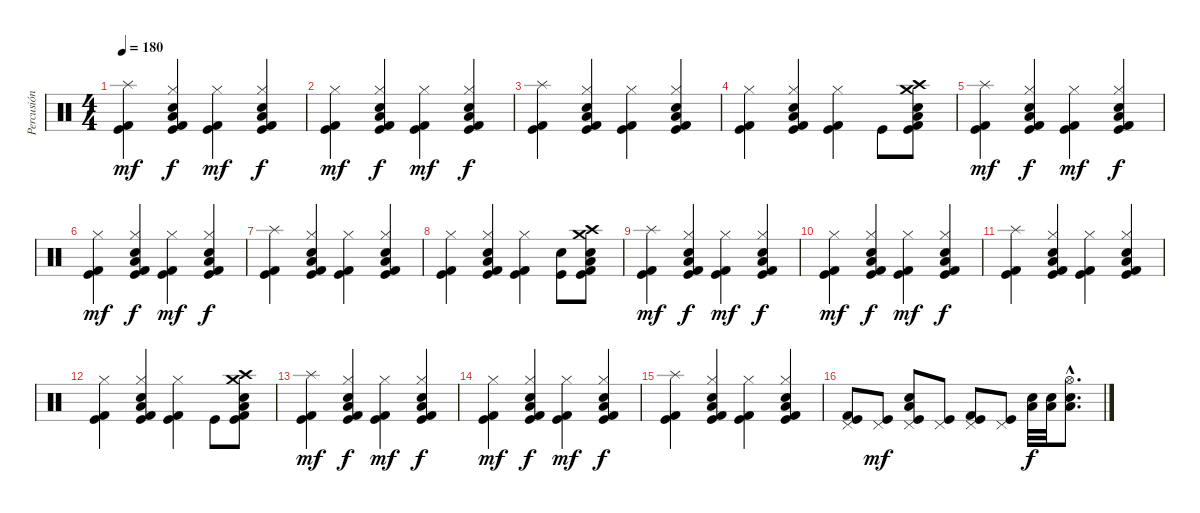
\track ("Percusión" "Percusión") {instrument percussion}
\staff {score}
\articulation defaults
\ts (4 4)
\tempo 180
\clef neutral
\ks c
("Splash (hit)" "Kick (hit) 2" "Kick (hit)").4{dy mf} ("Hi-Hat (closed)" "Electric Snare (hit)" "Low Tom (hit)" "Kick (hit) 2" "Kick (hit)").4{dy f} ("Hi-Hat (closed)" "Kick (hit) 2" "Kick (hit)").4{dy mf} ("Hi-Hat (closed)" "Electric Snare (hit)" "Low Tom (hit)" "Kick (hit) 2" "Kick (hit)").4{dy f} |
("Hi-Hat (closed)" "Kick (hit) 2" "Kick (hit)").4{dy mf} ("Hi-Hat (closed)" "Electric Snare (hit)" "Low Tom (hit)" "Kick (hit) 2" "Kick (hit)").4{dy f} ("Hi-Hat (closed)" "Kick (hit) 2" "Kick (hit)").4{dy mf} ("Hi-Hat (closed)" "Electric Snare (hit)" "Low Tom (hit)" "Kick (hit) 2" "Kick (hit)").4{dy f} |
("Splash (hit)" "Kick (hit) 2" "Kick (hit)").4 ("Hi-Hat (closed)" "Electric Snare (hit)" "Low Tom (hit)" "Kick (hit) 2" "Kick (hit)").4 ("Hi-Hat (closed)" "Kick (hit) 2" "Kick (hit)").4 ("Hi-Hat (closed)" "Electric Snare (hit)" "Low Tom (hit)" "Kick (hit) 2" "Kick (hit)").4 |
("Hi-Hat (closed)" "Kick (hit) 2" "Kick (hit)").4 ("Hi-Hat (closed)" "Electric Snare (hit)" "Low Tom (hit)" "Kick (hit) 2" "Kick (hit)").4 ("Hi-Hat (closed)" "Kick (hit) 2" "Kick (hit)").4 "Kick (hit)".8 ("Crash high (hit)" "Electric Snare (hit)" "Low Tom (hit)" "Crash medium (hit)" "Kick (hit) 2" "Kick (hit)").8 |
("Splash (hit)" "Kick (hit) 2" "Kick (hit)").4{dy mf} ("Hi-Hat (closed)" "Electric Snare (hit)" "Low Tom (hit)" "Kick (hit) 2" "Kick (hit)").4{dy f} ("Hi-Hat (closed)" "Kick (hit) 2" "Kick (hit)").4{dy mf} ("Hi-Hat (closed)" "Electric Snare (hit)" "Low Tom (hit)" "Kick (hit) 2" "Kick (hit)").4{dy f} |
("Hi-Hat (closed)" "Kick (hit) 2" "Kick (hit)").4{dy mf} ("Hi-Hat (closed)" "Electric Snare (hit)" "Low Tom (hit)" "Kick (hit) 2" "Kick (hit)").4{dy f} ("Hi-Hat (closed)" "Kick (hit) 2" "Kick (hit)").4{dy mf} ("Hi-Hat (closed)" "Electric Snare (hit)" "Low Tom (hit)" "Kick (hit) 2" "Kick (hit)").4{dy f} |
("Splash (hit)" "Kick (hit) 2" "Kick (hit)").4 ("Hi-Hat (closed)" "Electric Snare (hit)" "Low Tom (hit)" "Kick (hit) 2" "Kick (hit)").4 ("Hi-Hat (closed)" "Kick (hit) 2" "Kick (hit)").4 ("Hi-Hat (closed)" "Electric Snare (hit)" "Low Tom (hit)" "Kick (hit) 2" "Kick (hit)").4 |
("Hi-Hat (closed)" "Kick (hit) 2" "Kick (hit)").4 ("Hi-Hat (closed)" "Electric Snare (hit)" "Low Tom (hit)" "Kick (hit) 2" "Kick (hit)").4 ("Hi-Hat (closed)" "Kick (hit) 2" "Kick (hit)").4 ("Electric Snare (hit)" "Kick (hit)").8 ("Crash high (hit)" "Electric Snare (hit)" "Low Tom (hit)" "Crash medium (hit)" "Kick (hit) 2" "Kick (hit)").8 |
("Splash (hit)" "Kick (hit) 2" "Kick (hit)").4{dy mf} ("Hi-Hat (closed)" "Electric Snare (hit)" "Low Tom (hit)" "Kick (hit) 2" "Kick (hit)").4{dy f} ("Hi-Hat (closed)" "Kick (hit) 2" "Kick (hit)").4{dy mf} ("Hi-Hat (closed)" "Electric Snare (hit)" "Low Tom (hit)" "Kick (hit) 2" "Kick (hit)").4{dy f} |
("Hi-Hat (closed)" "Kick (hit) 2" "Kick (hit)").4{dy mf} ("Hi-Hat (closed)" "Electric Snare (hit)" "Low Tom (hit)" "Kick (hit) 2" "Kick (hit)").4{dy f} ("Hi-Hat (closed)" "Kick (hit) 2" "Kick (hit)").4{dy mf} ("Hi-Hat (closed)" "Electric Snare (hit)" "Low Tom (hit)" "Kick (hit) 2" "Kick (hit)").4{dy f} |
("Splash (hit)" "Kick (hit) 2" "Kick (hit)").4 ("Hi-Hat (closed)" "Electric Snare (hit)" "Low Tom (hit)" "Kick (hit) 2" "Kick (hit)").4 ("Hi-Hat (closed)" "Kick (hit) 2" "Kick (hit)").4 ("Hi-Hat (closed)" "Electric Snare (hit)" "Low Tom (hit)" "Kick (hit) 2" "Kick (hit)").4 |
("Hi-Hat (closed)" "Kick (hit) 2" "Kick (hit)").4 ("Hi-Hat (closed)" "Electric Snare (hit)" "Low Tom (hit)" "Kick (hit) 2" "Kick (hit)").4 ("Hi-Hat (closed)" "Kick (hit) 2" "Kick (hit)").4 "Kick (hit)".8 ("Crash high (hit)" "Electric Snare (hit)" "Low Tom (hit)" "Crash medium (hit)" "Kick (hit) 2" "Kick (hit)").8 |
("Splash (hit)" "Kick (hit) 2" "Kick (hit)").4{dy mf} ("Hi-Hat (closed)" "Electric Snare (hit)" "Low Tom (hit)" "Kick (hit) 2" "Kick (hit)").4{dy f} ("Hi-Hat (closed)" "Kick (hit) 2" "Kick (hit)").4{dy mf} ("Hi-Hat (closed)" "Electric Snare (hit)" "Low Tom (hit)" "Kick (hit) 2" "Kick (hit)").4{dy f} |
("Hi-Hat (closed)" "Kick (hit) 2" "Kick (hit)").4{dy mf} ("Hi-Hat (closed)" "Electric Snare (hit)" "Low Tom (hit)" "Kick (hit) 2" "Kick (hit)").4{dy f} ("Hi-Hat (closed)" "Kick (hit) 2" "Kick (hit)").4{dy mf} ("Hi-Hat (closed)" "Electric Snare (hit)" "Low Tom (hit)" "Kick (hit) 2" "Kick (hit)").4{dy f} |
("Splash (hit)" "Kick (hit) 2" "Kick (hit)").4 ("Hi-Hat (closed)" "Electric Snare (hit)" "Low Tom (hit)" "Kick (hit) 2" "Kick (hit)").4 ("Hi-Hat (closed)" "Kick (hit) 2" "Kick (hit)").4 ("Hi-Hat (closed)" "Electric Snare (hit)" "Low Tom (hit)" "Kick (hit) 2" "Kick (hit)").4 |
("Pedal Hi-Hat (hit)" "Kick (hit) 2" "Kick (hit)").8 ("Pedal Hi-Hat (hit)" "Kick (hit)").8{dy mf} ("Pedal Hi-Hat (hit)" "Electric Snare (hit)" "Low Tom (hit)" "Kick (hit)").8 ("Pedal Hi-Hat (hit)" "Kick (hit)").8 ("Pedal Hi-Hat (hit)" "Kick (hit) 2" "Kick (hit)").8 ("Pedal Hi-Hat (hit)" "Kick (hit)").8 ("Electric Snare (hit)" "Low Tom (hit)").32{dy f} ("Electric Snare (hit)" "Low Tom (hit)").32 ("Hi-Hat (open)"{hac} "Electric Snare (hit)"{hac} "Low Tom (hit)"{hac}).8{d}
